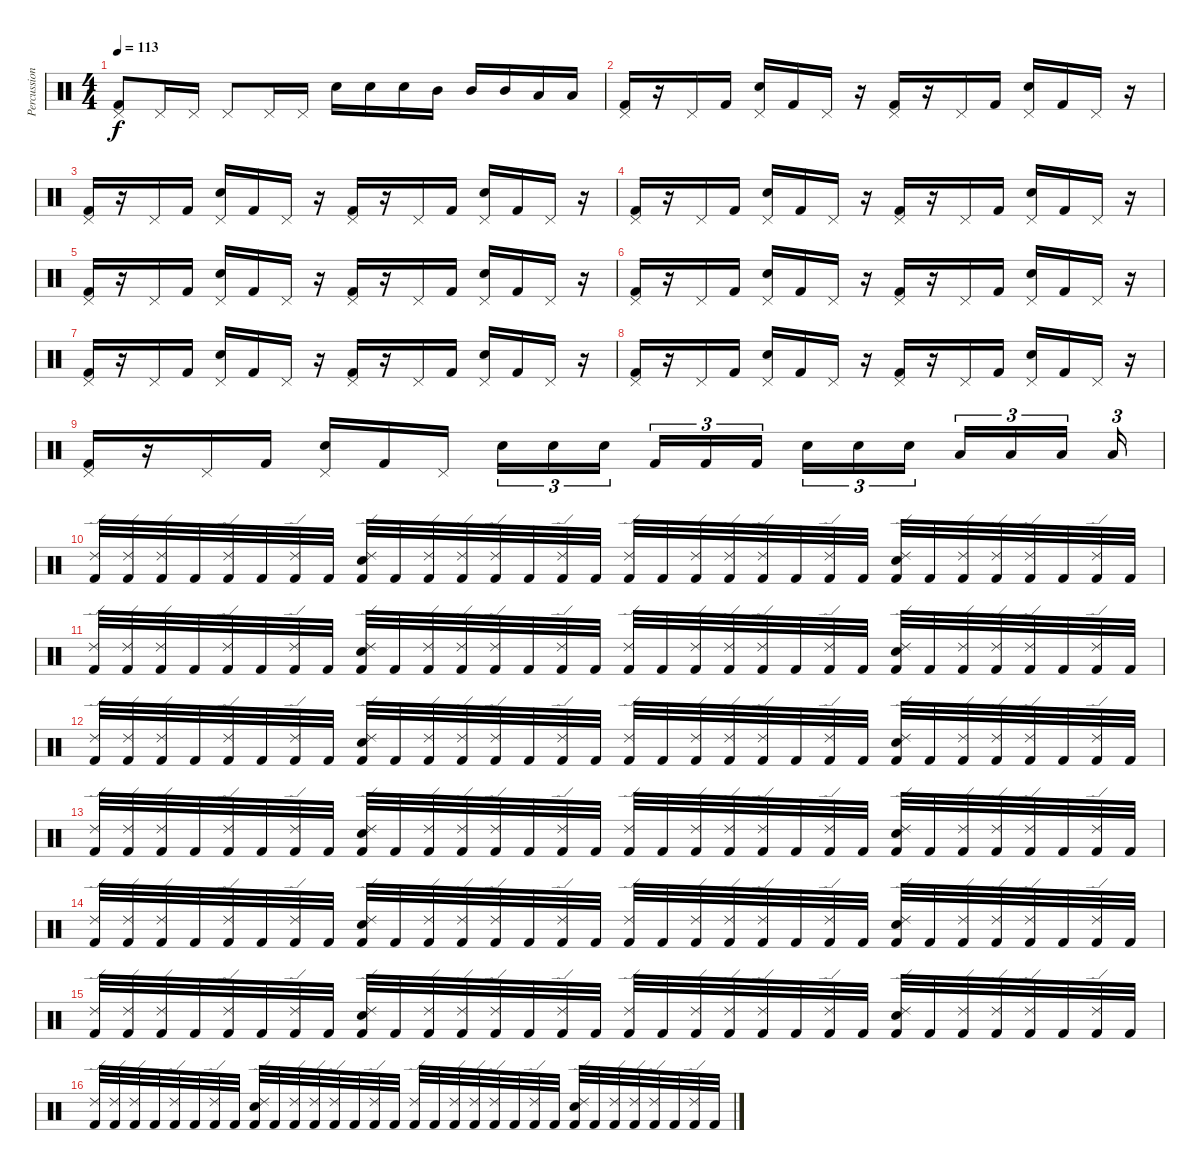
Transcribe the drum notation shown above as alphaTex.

\track ("Percussion" "Percussion") {instrument percussion}
\staff {score}
\articulation defaults
\ts (4 4)
\tempo 113
\clef neutral
\ks c
("Pedal Hi-Hat (hit)" "Kick (hit) 2").8{dy f} "Pedal Hi-Hat (hit)".16 "Pedal Hi-Hat (hit)".16 "Pedal Hi-Hat (hit)".8 "Pedal Hi-Hat (hit)".16 "Pedal Hi-Hat (hit)".16 "Electric Snare (hit)".16 "Electric Snare (hit)".16 "Electric Snare (hit)".16 "Mid Tom (hit)".16 "Mid Tom (hit)".16 "Mid Tom (hit)".16 "Low Tom (hit)".16 "Low Tom (hit)".16 |
("Pedal Hi-Hat (hit)" "Kick (hit) 2").16 r.16 "Pedal Hi-Hat (hit)".16 "Kick (hit) 2".16 ("Pedal Hi-Hat (hit)" "Electric Snare (hit)").16 "Kick (hit) 2".16 "Pedal Hi-Hat (hit)".16 r.16 ("Pedal Hi-Hat (hit)" "Kick (hit) 2").16 r.16 "Pedal Hi-Hat (hit)".16 "Kick (hit) 2".16 ("Pedal Hi-Hat (hit)" "Electric Snare (hit)").16 "Kick (hit) 2".16 "Pedal Hi-Hat (hit)".16 r.16 |
("Pedal Hi-Hat (hit)" "Kick (hit) 2").16 r.16 "Pedal Hi-Hat (hit)".16 "Kick (hit) 2".16 ("Pedal Hi-Hat (hit)" "Electric Snare (hit)").16 "Kick (hit) 2".16 "Pedal Hi-Hat (hit)".16 r.16 ("Pedal Hi-Hat (hit)" "Kick (hit) 2").16 r.16 "Pedal Hi-Hat (hit)".16 "Kick (hit) 2".16 ("Pedal Hi-Hat (hit)" "Electric Snare (hit)").16 "Kick (hit) 2".16 "Pedal Hi-Hat (hit)".16 r.16 |
("Pedal Hi-Hat (hit)" "Kick (hit) 2").16 r.16 "Pedal Hi-Hat (hit)".16 "Kick (hit) 2".16 ("Pedal Hi-Hat (hit)" "Electric Snare (hit)").16 "Kick (hit) 2".16 "Pedal Hi-Hat (hit)".16 r.16 ("Pedal Hi-Hat (hit)" "Kick (hit) 2").16 r.16 "Pedal Hi-Hat (hit)".16 "Kick (hit) 2".16 ("Pedal Hi-Hat (hit)" "Electric Snare (hit)").16 "Kick (hit) 2".16 "Pedal Hi-Hat (hit)".16 r.16 |
("Pedal Hi-Hat (hit)" "Kick (hit) 2").16 r.16 "Pedal Hi-Hat (hit)".16 "Kick (hit) 2".16 ("Pedal Hi-Hat (hit)" "Electric Snare (hit)").16 "Kick (hit) 2".16 "Pedal Hi-Hat (hit)".16 r.16 ("Pedal Hi-Hat (hit)" "Kick (hit) 2").16 r.16 "Pedal Hi-Hat (hit)".16 "Kick (hit) 2".16 ("Pedal Hi-Hat (hit)" "Electric Snare (hit)").16 "Kick (hit) 2".16 "Pedal Hi-Hat (hit)".16 r.16 |
("Pedal Hi-Hat (hit)" "Kick (hit) 2").16 r.16 "Pedal Hi-Hat (hit)".16 "Kick (hit) 2".16 ("Pedal Hi-Hat (hit)" "Electric Snare (hit)").16 "Kick (hit) 2".16 "Pedal Hi-Hat (hit)".16 r.16 ("Pedal Hi-Hat (hit)" "Kick (hit) 2").16 r.16 "Pedal Hi-Hat (hit)".16 "Kick (hit) 2".16 ("Pedal Hi-Hat (hit)" "Electric Snare (hit)").16 "Kick (hit) 2".16 "Pedal Hi-Hat (hit)".16 r.16 |
("Pedal Hi-Hat (hit)" "Kick (hit) 2").16 r.16 "Pedal Hi-Hat (hit)".16 "Kick (hit) 2".16 ("Pedal Hi-Hat (hit)" "Electric Snare (hit)").16 "Kick (hit) 2".16 "Pedal Hi-Hat (hit)".16 r.16 ("Pedal Hi-Hat (hit)" "Kick (hit) 2").16 r.16 "Pedal Hi-Hat (hit)".16 "Kick (hit) 2".16 ("Pedal Hi-Hat (hit)" "Electric Snare (hit)").16 "Kick (hit) 2".16 "Pedal Hi-Hat (hit)".16 r.16 |
("Pedal Hi-Hat (hit)" "Kick (hit) 2").16 r.16 "Pedal Hi-Hat (hit)".16 "Kick (hit) 2".16 ("Pedal Hi-Hat (hit)" "Electric Snare (hit)").16 "Kick (hit) 2".16 "Pedal Hi-Hat (hit)".16 r.16 ("Pedal Hi-Hat (hit)" "Kick (hit) 2").16 r.16 "Pedal Hi-Hat (hit)".16 "Kick (hit) 2".16 ("Pedal Hi-Hat (hit)" "Electric Snare (hit)").16 "Kick (hit) 2".16 "Pedal Hi-Hat (hit)".16 r.16 |
("Pedal Hi-Hat (hit)" "Kick (hit) 2").16 r.16 "Pedal Hi-Hat (hit)".16 "Kick (hit) 2".16 ("Pedal Hi-Hat (hit)" "Electric Snare (hit)").16 "Kick (hit) 2".16 "Pedal Hi-Hat (hit)".16 "Electric Snare (hit)".16{tu (3 2)} "Electric Snare (hit)".16{tu (3 2)} "Electric Snare (hit)".16{tu (3 2)} "Kick (hit) 2".16{tu (3 2)} "Kick (hit) 2".16{tu (3 2)} "Kick (hit) 2".16{tu (3 2)} "Electric Snare (hit)".16{tu (3 2)} "Electric Snare (hit)".16{tu (3 2)} "Electric Snare (hit)".16{tu (3 2)} "Low Tom (hit)".16{tu (3 2)} "Low Tom (hit)".16{tu (3 2)} "Low Floor Tom (hit)".16{tu (3 2)} "Low Floor Tom (hit)".16{tu (3 2)} |
("Ride (edge) 2" "Kick (hit) 2").32 ("Ride (edge) 2" "Kick (hit) 2").32 ("Ride (edge) 2" "Kick (hit) 2").32 "Kick (hit) 2".32 ("Ride (edge) 2" "Kick (hit) 2").32 "Kick (hit) 2".32 ("Ride (edge) 2" "Kick (hit) 2").32 "Kick (hit) 2".32 ("Ride (edge) 2" "Electric Snare (hit)" "Kick (hit) 2").32 "Kick (hit) 2".32 ("Ride (edge) 2" "Kick (hit) 2").32 ("Ride (edge) 2" "Kick (hit) 2").32 ("Ride (edge) 2" "Kick (hit) 2").32 "Kick (hit) 2".32 ("Ride (edge) 2" "Kick (hit) 2").32 "Kick (hit) 2".32 ("Ride (edge) 2" "Kick (hit) 2").32 "Kick (hit) 2".32 ("Ride (edge) 2" "Kick (hit) 2").32 ("Ride (edge) 2" "Kick (hit) 2").32 ("Ride (edge) 2" "Kick (hit) 2").32 "Kick (hit) 2".32 ("Ride (edge) 2" "Kick (hit) 2").32 "Kick (hit) 2".32 ("Ride (edge) 2" "Electric Snare (hit)" "Kick (hit) 2").32 "Kick (hit) 2".32 ("Ride (edge) 2" "Kick (hit) 2").32 ("Ride (edge) 2" "Kick (hit) 2").32 ("Ride (edge) 2" "Kick (hit) 2").32 "Kick (hit) 2".32 ("Ride (edge) 2" "Kick (hit) 2").32 "Kick (hit) 2".32 |
("Ride (edge) 2" "Kick (hit) 2").32 ("Ride (edge) 2" "Kick (hit) 2").32 ("Ride (edge) 2" "Kick (hit) 2").32 "Kick (hit) 2".32 ("Ride (edge) 2" "Kick (hit) 2").32 "Kick (hit) 2".32 ("Ride (edge) 2" "Kick (hit) 2").32 "Kick (hit) 2".32 ("Ride (edge) 2" "Electric Snare (hit)" "Kick (hit) 2").32 "Kick (hit) 2".32 ("Ride (edge) 2" "Kick (hit) 2").32 ("Ride (edge) 2" "Kick (hit) 2").32 ("Ride (edge) 2" "Kick (hit) 2").32 "Kick (hit) 2".32 ("Ride (edge) 2" "Kick (hit) 2").32 "Kick (hit) 2".32 ("Ride (edge) 2" "Kick (hit) 2").32 "Kick (hit) 2".32 ("Ride (edge) 2" "Kick (hit) 2").32 ("Ride (edge) 2" "Kick (hit) 2").32 ("Ride (edge) 2" "Kick (hit) 2").32 "Kick (hit) 2".32 ("Ride (edge) 2" "Kick (hit) 2").32 "Kick (hit) 2".32 ("Ride (edge) 2" "Electric Snare (hit)" "Kick (hit) 2").32 "Kick (hit) 2".32 ("Ride (edge) 2" "Kick (hit) 2").32 ("Ride (edge) 2" "Kick (hit) 2").32 ("Ride (edge) 2" "Kick (hit) 2").32 "Kick (hit) 2".32 ("Ride (edge) 2" "Kick (hit) 2").32 "Kick (hit) 2".32 |
("Ride (edge) 2" "Kick (hit) 2").32 ("Ride (edge) 2" "Kick (hit) 2").32 ("Ride (edge) 2" "Kick (hit) 2").32 "Kick (hit) 2".32 ("Ride (edge) 2" "Kick (hit) 2").32 "Kick (hit) 2".32 ("Ride (edge) 2" "Kick (hit) 2").32 "Kick (hit) 2".32 ("Ride (edge) 2" "Electric Snare (hit)" "Kick (hit) 2").32 "Kick (hit) 2".32 ("Ride (edge) 2" "Kick (hit) 2").32 ("Ride (edge) 2" "Kick (hit) 2").32 ("Ride (edge) 2" "Kick (hit) 2").32 "Kick (hit) 2".32 ("Ride (edge) 2" "Kick (hit) 2").32 "Kick (hit) 2".32 ("Ride (edge) 2" "Kick (hit) 2").32 "Kick (hit) 2".32 ("Ride (edge) 2" "Kick (hit) 2").32 ("Ride (edge) 2" "Kick (hit) 2").32 ("Ride (edge) 2" "Kick (hit) 2").32 "Kick (hit) 2".32 ("Ride (edge) 2" "Kick (hit) 2").32 "Kick (hit) 2".32 ("Ride (edge) 2" "Electric Snare (hit)" "Kick (hit) 2").32 "Kick (hit) 2".32 ("Ride (edge) 2" "Kick (hit) 2").32 ("Ride (edge) 2" "Kick (hit) 2").32 ("Ride (edge) 2" "Kick (hit) 2").32 "Kick (hit) 2".32 ("Ride (edge) 2" "Kick (hit) 2").32 "Kick (hit) 2".32 |
("Ride (edge) 2" "Kick (hit) 2").32 ("Ride (edge) 2" "Kick (hit) 2").32 ("Ride (edge) 2" "Kick (hit) 2").32 "Kick (hit) 2".32 ("Ride (edge) 2" "Kick (hit) 2").32 "Kick (hit) 2".32 ("Ride (edge) 2" "Kick (hit) 2").32 "Kick (hit) 2".32 ("Ride (edge) 2" "Electric Snare (hit)" "Kick (hit) 2").32 "Kick (hit) 2".32 ("Ride (edge) 2" "Kick (hit) 2").32 ("Ride (edge) 2" "Kick (hit) 2").32 ("Ride (edge) 2" "Kick (hit) 2").32 "Kick (hit) 2".32 ("Ride (edge) 2" "Kick (hit) 2").32 "Kick (hit) 2".32 ("Ride (edge) 2" "Kick (hit) 2").32 "Kick (hit) 2".32 ("Ride (edge) 2" "Kick (hit) 2").32 ("Ride (edge) 2" "Kick (hit) 2").32 ("Ride (edge) 2" "Kick (hit) 2").32 "Kick (hit) 2".32 ("Ride (edge) 2" "Kick (hit) 2").32 "Kick (hit) 2".32 ("Ride (edge) 2" "Electric Snare (hit)" "Kick (hit) 2").32 "Kick (hit) 2".32 ("Ride (edge) 2" "Kick (hit) 2").32 ("Ride (edge) 2" "Kick (hit) 2").32 ("Ride (edge) 2" "Kick (hit) 2").32 "Kick (hit) 2".32 ("Ride (edge) 2" "Kick (hit) 2").32 "Kick (hit) 2".32 |
("Ride (edge) 2" "Kick (hit) 2").32 ("Ride (edge) 2" "Kick (hit) 2").32 ("Ride (edge) 2" "Kick (hit) 2").32 "Kick (hit) 2".32 ("Ride (edge) 2" "Kick (hit) 2").32 "Kick (hit) 2".32 ("Ride (edge) 2" "Kick (hit) 2").32 "Kick (hit) 2".32 ("Ride (edge) 2" "Electric Snare (hit)" "Kick (hit) 2").32 "Kick (hit) 2".32 ("Ride (edge) 2" "Kick (hit) 2").32 ("Ride (edge) 2" "Kick (hit) 2").32 ("Ride (edge) 2" "Kick (hit) 2").32 "Kick (hit) 2".32 ("Ride (edge) 2" "Kick (hit) 2").32 "Kick (hit) 2".32 ("Ride (edge) 2" "Kick (hit) 2").32 "Kick (hit) 2".32 ("Ride (edge) 2" "Kick (hit) 2").32 ("Ride (edge) 2" "Kick (hit) 2").32 ("Ride (edge) 2" "Kick (hit) 2").32 "Kick (hit) 2".32 ("Ride (edge) 2" "Kick (hit) 2").32 "Kick (hit) 2".32 ("Ride (edge) 2" "Electric Snare (hit)" "Kick (hit) 2").32 "Kick (hit) 2".32 ("Ride (edge) 2" "Kick (hit) 2").32 ("Ride (edge) 2" "Kick (hit) 2").32 ("Ride (edge) 2" "Kick (hit) 2").32 "Kick (hit) 2".32 ("Ride (edge) 2" "Kick (hit) 2").32 "Kick (hit) 2".32 |
("Ride (edge) 2" "Kick (hit) 2").32 ("Ride (edge) 2" "Kick (hit) 2").32 ("Ride (edge) 2" "Kick (hit) 2").32 "Kick (hit) 2".32 ("Ride (edge) 2" "Kick (hit) 2").32 "Kick (hit) 2".32 ("Ride (edge) 2" "Kick (hit) 2").32 "Kick (hit) 2".32 ("Ride (edge) 2" "Electric Snare (hit)" "Kick (hit) 2").32 "Kick (hit) 2".32 ("Ride (edge) 2" "Kick (hit) 2").32 ("Ride (edge) 2" "Kick (hit) 2").32 ("Ride (edge) 2" "Kick (hit) 2").32 "Kick (hit) 2".32 ("Ride (edge) 2" "Kick (hit) 2").32 "Kick (hit) 2".32 ("Ride (edge) 2" "Kick (hit) 2").32 "Kick (hit) 2".32 ("Ride (edge) 2" "Kick (hit) 2").32 ("Ride (edge) 2" "Kick (hit) 2").32 ("Ride (edge) 2" "Kick (hit) 2").32 "Kick (hit) 2".32 ("Ride (edge) 2" "Kick (hit) 2").32 "Kick (hit) 2".32 ("Ride (edge) 2" "Electric Snare (hit)" "Kick (hit) 2").32 "Kick (hit) 2".32 ("Ride (edge) 2" "Kick (hit) 2").32 ("Ride (edge) 2" "Kick (hit) 2").32 ("Ride (edge) 2" "Kick (hit) 2").32 "Kick (hit) 2".32 ("Ride (edge) 2" "Kick (hit) 2").32 "Kick (hit) 2".32 |
("Ride (edge) 2" "Kick (hit) 2").32 ("Ride (edge) 2" "Kick (hit) 2").32 ("Ride (edge) 2" "Kick (hit) 2").32 "Kick (hit) 2".32 ("Ride (edge) 2" "Kick (hit) 2").32 "Kick (hit) 2".32 ("Ride (edge) 2" "Kick (hit) 2").32 "Kick (hit) 2".32 ("Ride (edge) 2" "Electric Snare (hit)" "Kick (hit) 2").32 "Kick (hit) 2".32 ("Ride (edge) 2" "Kick (hit) 2").32 ("Ride (edge) 2" "Kick (hit) 2").32 ("Ride (edge) 2" "Kick (hit) 2").32 "Kick (hit) 2".32 ("Ride (edge) 2" "Kick (hit) 2").32 "Kick (hit) 2".32 ("Ride (edge) 2" "Kick (hit) 2").32 "Kick (hit) 2".32 ("Ride (edge) 2" "Kick (hit) 2").32 ("Ride (edge) 2" "Kick (hit) 2").32 ("Ride (edge) 2" "Kick (hit) 2").32 "Kick (hit) 2".32 ("Ride (edge) 2" "Kick (hit) 2").32 "Kick (hit) 2".32 ("Ride (edge) 2" "Electric Snare (hit)" "Kick (hit) 2").32 "Kick (hit) 2".32 ("Ride (edge) 2" "Kick (hit) 2").32 ("Ride (edge) 2" "Kick (hit) 2").32 ("Ride (edge) 2" "Kick (hit) 2").32 "Kick (hit) 2".32 ("Ride (edge) 2" "Kick (hit) 2").32 "Kick (hit) 2".32
